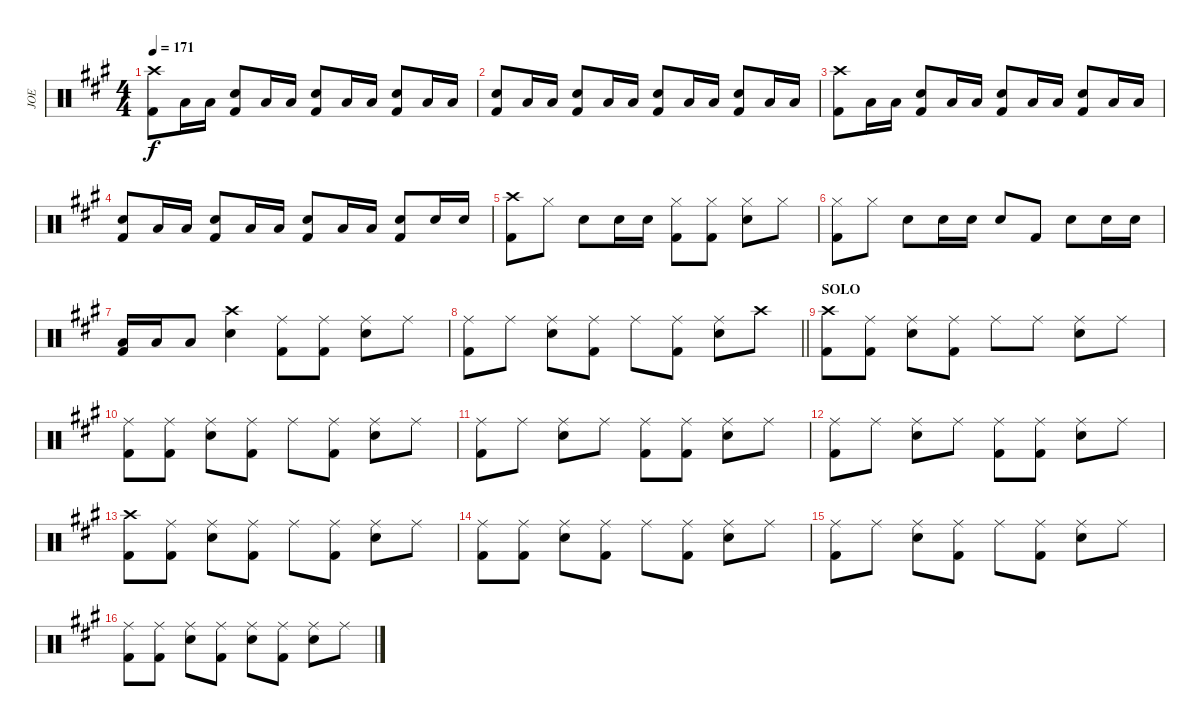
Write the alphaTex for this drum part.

\track ("JOE" "JOE") {instrument percussion}
\staff {score}
\articulation defaults
\ts (4 4)
\tempo 171
\clef neutral
\ks a
("Crash high (hit)" "Kick (hit) 2").8{dy f} "Low Floor Tom (hit)".16 "Low Floor Tom (hit)".16 ("Snare (hit) 2" "Kick (hit) 2").8 "Low Floor Tom (hit)".16 "Low Floor Tom (hit)".16 ("Snare (hit) 2" "Kick (hit) 2").8 "Low Floor Tom (hit)".16 "Low Floor Tom (hit)".16 ("Snare (hit) 2" "Kick (hit) 2").8 "Low Floor Tom (hit)".16 "Low Floor Tom (hit)".16 |
("Snare (hit) 2" "Kick (hit) 2").8 "Low Floor Tom (hit)".16 "Low Floor Tom (hit)".16 ("Snare (hit) 2" "Kick (hit) 2").8 "Low Floor Tom (hit)".16 "Low Floor Tom (hit)".16 ("Snare (hit) 2" "Kick (hit) 2").8 "Low Floor Tom (hit)".16 "Low Floor Tom (hit)".16 ("Snare (hit) 2" "Kick (hit) 2").8 "Low Floor Tom (hit)".16 "Low Floor Tom (hit)".16 |
("Crash high (hit)" "Kick (hit) 2").8 "Low Floor Tom (hit)".16 "Low Floor Tom (hit)".16 ("Snare (hit) 2" "Kick (hit) 2").8 "Low Floor Tom (hit)".16 "Low Floor Tom (hit)".16 ("Snare (hit) 2" "Kick (hit) 2").8 "Low Floor Tom (hit)".16 "Low Floor Tom (hit)".16 ("Snare (hit) 2" "Kick (hit) 2").8 "Low Floor Tom (hit)".16 "Low Floor Tom (hit)".16 |
("Snare (hit) 2" "Kick (hit) 2").8 "Low Floor Tom (hit)".16 "Low Floor Tom (hit)".16 ("Snare (hit) 2" "Kick (hit) 2").8 "Low Floor Tom (hit)".16 "Low Floor Tom (hit)".16 ("Snare (hit) 2" "Kick (hit) 2").8 "Low Floor Tom (hit)".16 "Low Floor Tom (hit)".16 ("Snare (hit) 2" "Kick (hit) 2").8 "Snare (hit) 2".16 "Snare (hit) 2".16 |
("Crash high (hit)" "Kick (hit) 2").8 "Hi-Hat (closed)".8 "Snare (hit) 2".8 "Snare (hit) 2".16 "Snare (hit) 2".16 ("Hi-Hat (closed)" "Kick (hit) 2").8 ("Hi-Hat (closed)" "Kick (hit) 2").8 ("Hi-Hat (closed)" "Snare (hit) 2").8 "Hi-Hat (closed)".8 |
("Hi-Hat (closed)" "Kick (hit) 2").8 "Hi-Hat (closed)".8 "Snare (hit) 2".8 "Snare (hit) 2".16 "Snare (hit) 2".16 "Snare (hit) 2".8 "Kick (hit) 2".8 "Snare (hit) 2".8 "Snare (hit) 2".16 "Snare (hit) 2".16 |
("Low Floor Tom (hit)" "Kick (hit) 2").16 "Low Tom (hit)".16 "Low Floor Tom (hit)".8 ("Crash high (hit)" "Snare (hit) 2").4 ("Ride (middle)" "Kick (hit) 2").8 ("Ride (middle)" "Kick (hit) 2").8 ("Ride (middle)" "Snare (hit) 2").8 "Ride (middle)".8 |
\barLineRight lightlight
("Ride (middle)" "Kick (hit) 2").8 "Ride (middle)".8 ("Ride (middle)" "Snare (hit) 2").8 ("Ride (middle)" "Kick (hit) 2").8 "Ride (middle)".8 ("Ride (middle)" "Kick (hit) 2").8 ("Ride (middle)" "Snare (hit) 2").8 "Crash high (hit)".8 |
\section ("" "SOLO")
("Crash high (hit)" "Kick (hit) 2").8 ("Ride (middle)" "Kick (hit) 2").8 ("Ride (middle)" "Snare (hit) 2").8 ("Ride (middle)" "Kick (hit) 2").8 "Ride (middle)".8 "Ride (middle)".8 ("Ride (middle)" "Snare (hit) 2").8 "Ride (middle)".8 |
("Ride (middle)" "Kick (hit) 2").8 ("Ride (middle)" "Kick (hit) 2").8 ("Ride (middle)" "Snare (hit) 2").8 ("Ride (middle)" "Kick (hit) 2").8 "Ride (middle)".8 ("Ride (middle)" "Kick (hit) 2").8 ("Ride (middle)" "Snare (hit) 2").8 "Ride (middle)".8 |
("Ride (middle)" "Kick (hit) 2").8 "Ride (middle)".8 ("Ride (middle)" "Snare (hit) 2").8 "Ride (middle)".8 ("Ride (middle)" "Kick (hit) 2").8 ("Ride (middle)" "Kick (hit) 2").8 ("Ride (middle)" "Snare (hit) 2").8 "Ride (middle)".8 |
("Ride (middle)" "Kick (hit) 2").8 "Ride (middle)".8 ("Ride (middle)" "Snare (hit) 2").8 "Ride (middle)".8 ("Ride (middle)" "Kick (hit) 2").8 ("Ride (middle)" "Kick (hit) 2").8 ("Ride (middle)" "Snare (hit) 2").8 "Ride (middle)".8 |
("Crash high (hit)" "Kick (hit) 2").8 ("Ride (middle)" "Kick (hit) 2").8 ("Ride (middle)" "Snare (hit) 2").8 ("Ride (middle)" "Kick (hit) 2").8 "Ride (middle)".8 ("Ride (middle)" "Kick (hit) 2").8 ("Ride (middle)" "Snare (hit) 2").8 "Ride (middle)".8 |
("Ride (middle)" "Kick (hit) 2").8 ("Ride (middle)" "Kick (hit) 2").8 ("Ride (middle)" "Snare (hit) 2").8 ("Ride (middle)" "Kick (hit) 2").8 "Ride (middle)".8 ("Ride (middle)" "Kick (hit) 2").8 ("Ride (middle)" "Snare (hit) 2").8 "Ride (middle)".8 |
("Ride (middle)" "Kick (hit) 2").8 "Ride (middle)".8 ("Ride (middle)" "Snare (hit) 2").8 ("Ride (middle)" "Kick (hit) 2").8 "Ride (middle)".8 ("Ride (middle)" "Kick (hit) 2").8 ("Ride (middle)" "Snare (hit) 2").8 "Ride (middle)".8 |
("Ride (middle)" "Kick (hit) 2").8 ("Ride (middle)" "Kick (hit) 2").8 ("Ride (middle)" "Snare (hit) 2").8 ("Ride (middle)" "Kick (hit) 2").8 ("Ride (middle)" "Snare (hit) 2").8 ("Ride (middle)" "Kick (hit) 2").8 ("Ride (middle)" "Snare (hit) 2").8 "Ride (middle)".8
